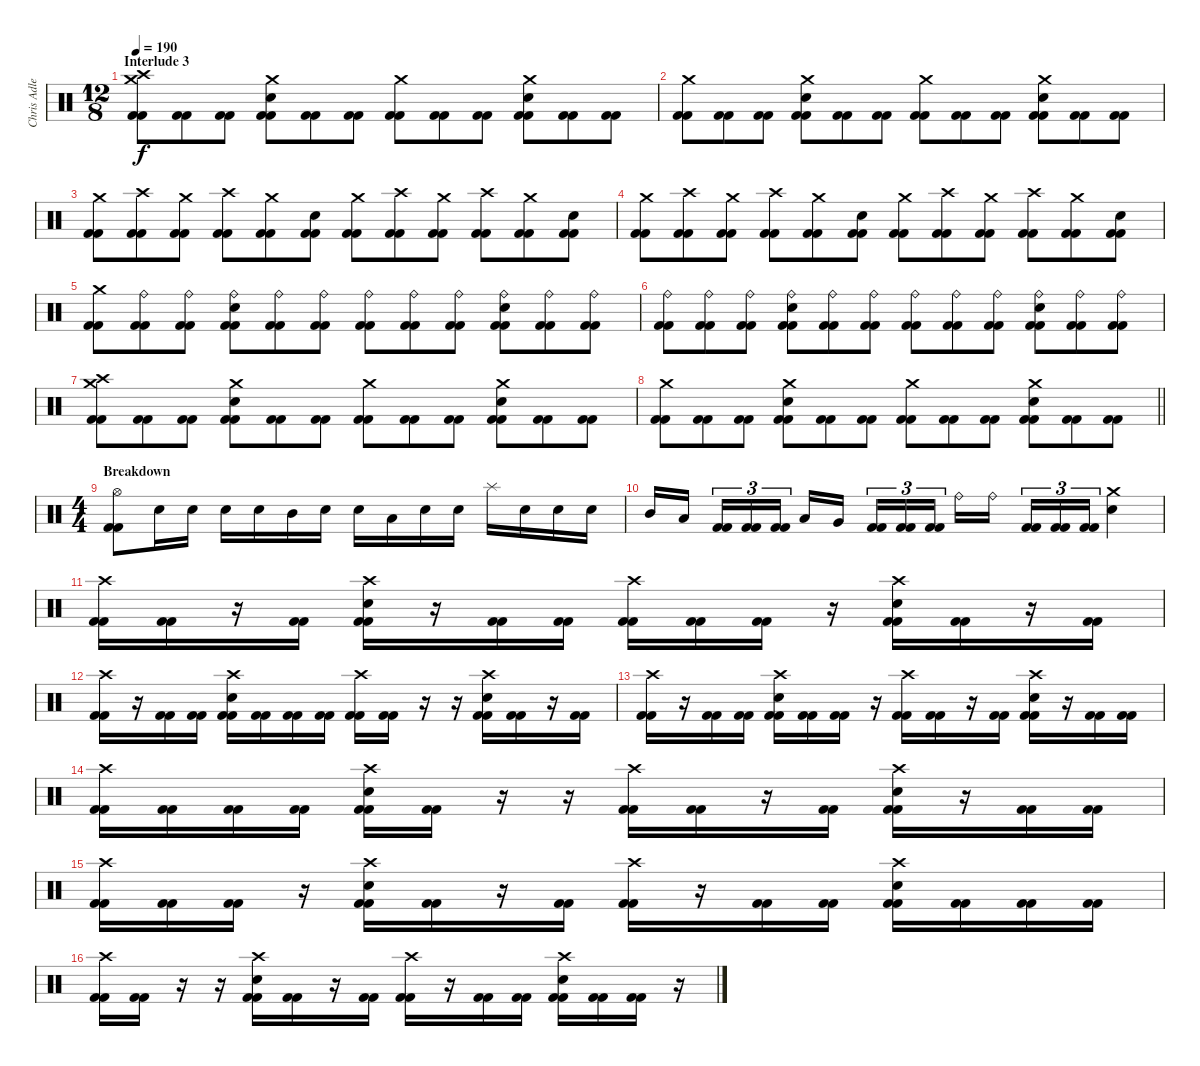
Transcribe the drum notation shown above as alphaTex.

\track ("Chris Adler" "Chris Adle") {instrument percussion}
\staff {score}
\articulation defaults
\ts (12 8)
\section ("" "Interlude 3")
\tempo 190
\clef neutral
\ks c
("Crash medium (hit)" "Crash high (hit)" "Kick (hit) 2" "Kick (hit) 2").8{dy f} ("Kick (hit) 2" "Kick (hit) 2").8 ("Kick (hit) 2" "Kick (hit) 2").8 ("Crash medium (hit)" "Electric Snare (hit)" "Kick (hit) 2" "Kick (hit) 2").8 ("Kick (hit) 2" "Kick (hit) 2").8 ("Kick (hit) 2" "Kick (hit) 2").8 ("Crash medium (hit)" "Kick (hit) 2" "Kick (hit) 2").8 ("Kick (hit) 2" "Kick (hit) 2").8 ("Kick (hit) 2" "Kick (hit) 2").8 ("Crash medium (hit)" "Electric Snare (hit)" "Kick (hit) 2" "Kick (hit) 2").8 ("Kick (hit) 2" "Kick (hit) 2").8 ("Kick (hit) 2" "Kick (hit) 2").8 |
("Crash medium (hit)" "Kick (hit) 2" "Kick (hit) 2").8 ("Kick (hit) 2" "Kick (hit) 2").8 ("Kick (hit) 2" "Kick (hit) 2").8 ("Crash medium (hit)" "Electric Snare (hit)" "Kick (hit) 2" "Kick (hit) 2").8 ("Kick (hit) 2" "Kick (hit) 2").8 ("Kick (hit) 2" "Kick (hit) 2").8 ("Crash medium (hit)" "Kick (hit) 2" "Kick (hit) 2").8 ("Kick (hit) 2" "Kick (hit) 2").8 ("Kick (hit) 2" "Kick (hit) 2").8 ("Crash medium (hit)" "Electric Snare (hit)" "Kick (hit) 2" "Kick (hit) 2").8 ("Kick (hit) 2" "Kick (hit) 2").8 ("Kick (hit) 2" "Kick (hit) 2").8 |
("Crash medium (hit)" "Kick (hit) 2" "Kick (hit) 2").8 ("Crash high (hit)" "Kick (hit) 2" "Kick (hit) 2").8 ("Crash medium (hit)" "Kick (hit) 2" "Kick (hit) 2").8 ("Crash high (hit)" "Kick (hit) 2" "Kick (hit) 2").8 ("Crash medium (hit)" "Kick (hit) 2" "Kick (hit) 2").8 ("Electric Snare (hit)" "Kick (hit) 2" "Kick (hit) 2").8 ("Crash medium (hit)" "Kick (hit) 2" "Kick (hit) 2").8 ("Crash high (hit)" "Kick (hit) 2" "Kick (hit) 2").8 ("Crash medium (hit)" "Kick (hit) 2" "Kick (hit) 2").8 ("Crash high (hit)" "Kick (hit) 2" "Kick (hit) 2").8 ("Crash medium (hit)" "Kick (hit) 2" "Kick (hit) 2").8 ("Electric Snare (hit)" "Kick (hit) 2" "Kick (hit) 2").8 |
("Crash medium (hit)" "Kick (hit) 2" "Kick (hit) 2").8 ("Crash high (hit)" "Kick (hit) 2" "Kick (hit) 2").8 ("Crash medium (hit)" "Kick (hit) 2" "Kick (hit) 2").8 ("Crash high (hit)" "Kick (hit) 2" "Kick (hit) 2").8 ("Crash medium (hit)" "Kick (hit) 2" "Kick (hit) 2").8 ("Electric Snare (hit)" "Kick (hit) 2" "Kick (hit) 2").8 ("Crash medium (hit)" "Kick (hit) 2" "Kick (hit) 2").8 ("Crash high (hit)" "Kick (hit) 2" "Kick (hit) 2").8 ("Crash medium (hit)" "Kick (hit) 2" "Kick (hit) 2").8 ("Crash high (hit)" "Kick (hit) 2" "Kick (hit) 2").8 ("Crash medium (hit)" "Kick (hit) 2" "Kick (hit) 2").8 ("Electric Snare (hit)" "Kick (hit) 2" "Kick (hit) 2").8 |
("Crash medium (hit)" "Kick (hit) 2" "Kick (hit) 2").8 ("Ride (bell)" "Kick (hit) 2" "Kick (hit) 2").8 ("Ride (bell)" "Kick (hit) 2" "Kick (hit) 2").8 ("Ride (bell)" "Electric Snare (hit)" "Kick (hit) 2" "Kick (hit) 2").8 ("Ride (bell)" "Kick (hit) 2" "Kick (hit) 2").8 ("Ride (bell)" "Kick (hit) 2" "Kick (hit) 2").8 ("Ride (bell)" "Kick (hit) 2" "Kick (hit) 2").8 ("Ride (bell)" "Kick (hit) 2" "Kick (hit) 2").8 ("Ride (bell)" "Kick (hit) 2" "Kick (hit) 2").8 ("Ride (bell)" "Electric Snare (hit)" "Kick (hit) 2" "Kick (hit) 2").8 ("Ride (bell)" "Kick (hit) 2" "Kick (hit) 2").8 ("Ride (bell)" "Kick (hit) 2" "Kick (hit) 2").8 |
("Ride (bell)" "Kick (hit) 2" "Kick (hit) 2").8 ("Ride (bell)" "Kick (hit) 2" "Kick (hit) 2").8 ("Ride (bell)" "Kick (hit) 2" "Kick (hit) 2").8 ("Ride (bell)" "Electric Snare (hit)" "Kick (hit) 2" "Kick (hit) 2").8 ("Ride (bell)" "Kick (hit) 2" "Kick (hit) 2").8 ("Ride (bell)" "Kick (hit) 2" "Kick (hit) 2").8 ("Ride (bell)" "Kick (hit) 2" "Kick (hit) 2").8 ("Ride (bell)" "Kick (hit) 2" "Kick (hit) 2").8 ("Ride (bell)" "Kick (hit) 2" "Kick (hit) 2").8 ("Ride (bell)" "Electric Snare (hit)" "Kick (hit) 2" "Kick (hit) 2").8 ("Ride (bell)" "Kick (hit) 2" "Kick (hit) 2").8 ("Ride (bell)" "Kick (hit) 2" "Kick (hit) 2").8 |
("Crash medium (hit)" "Crash high (hit)" "Kick (hit) 2" "Kick (hit) 2").8 ("Kick (hit) 2" "Kick (hit) 2").8 ("Kick (hit) 2" "Kick (hit) 2").8 ("Crash medium (hit)" "Electric Snare (hit)" "Kick (hit) 2" "Kick (hit) 2").8 ("Kick (hit) 2" "Kick (hit) 2").8 ("Kick (hit) 2" "Kick (hit) 2").8 ("Crash medium (hit)" "Kick (hit) 2" "Kick (hit) 2").8 ("Kick (hit) 2" "Kick (hit) 2").8 ("Kick (hit) 2" "Kick (hit) 2").8 ("Crash medium (hit)" "Electric Snare (hit)" "Kick (hit) 2" "Kick (hit) 2").8 ("Kick (hit) 2" "Kick (hit) 2").8 ("Kick (hit) 2" "Kick (hit) 2").8 |
\barLineRight lightlight
("Crash medium (hit)" "Kick (hit) 2" "Kick (hit) 2").8 ("Kick (hit) 2" "Kick (hit) 2").8 ("Kick (hit) 2" "Kick (hit) 2").8 ("Crash medium (hit)" "Electric Snare (hit)" "Kick (hit) 2" "Kick (hit) 2").8 ("Kick (hit) 2" "Kick (hit) 2").8 ("Kick (hit) 2" "Kick (hit) 2").8 ("Crash medium (hit)" "Kick (hit) 2" "Kick (hit) 2").8 ("Kick (hit) 2" "Kick (hit) 2").8 ("Kick (hit) 2" "Kick (hit) 2").8 ("Crash medium (hit)" "Electric Snare (hit)" "Kick (hit) 2" "Kick (hit) 2").8 ("Kick (hit) 2" "Kick (hit) 2").8 ("Kick (hit) 2" "Kick (hit) 2").8 |
\ts (4 4)
\section ("" "Breakdown")
("Hi-Hat (open)" "Kick (hit) 2" "Kick (hit) 2").8 "Electric Snare (hit)".16 "Electric Snare (hit)".16 "Electric Snare (hit)".16 "Electric Snare (hit)".16 "Mid Tom (hit)".16 "Electric Snare (hit)".16 "Electric Snare (hit)".16 "Low Tom (hit)".16 "Electric Snare (hit)".16 "Electric Snare (hit)".16 "Splash (hit)".16 "Electric Snare (hit)".16 "Electric Snare (hit)".16 "Electric Snare (hit)".16 |
"Mid Tom (hit)".16 "Low Tom (hit)".16{beam splitsecondary} ("Kick (hit) 2" "Kick (hit) 2").16{tu (3 2)} ("Kick (hit) 2" "Kick (hit) 2").16{tu (3 2)} ("Kick (hit) 2" "Kick (hit) 2").16{tu (3 2)} "Low Tom (hit)".16 "Very Low Tom (hit)".16{beam splitsecondary} ("Kick (hit) 2" "Kick (hit) 2").16{tu (3 2)} ("Kick (hit) 2" "Kick (hit) 2").16{tu (3 2)} ("Kick (hit) 2" "Kick (hit) 2").16{tu (3 2)} "Ride (bell)".16 "Ride (bell)".16{beam splitsecondary} ("Kick (hit) 2" "Kick (hit) 2").16{tu (3 2)} ("Kick (hit) 2" "Kick (hit) 2").16{tu (3 2)} ("Kick (hit) 2" "Kick (hit) 2").16{tu (3 2)} ("Crash medium (hit)" "Electric Snare (hit)").4 |
("Crash high (hit)" "Kick (hit) 2" "Kick (hit) 2").16 ("Kick (hit) 2" "Kick (hit) 2").16 r.16 ("Kick (hit) 2" "Kick (hit) 2").16 ("Crash high (hit)" "Electric Snare (hit)" "Kick (hit) 2" "Kick (hit) 2").16 r.16 ("Kick (hit) 2" "Kick (hit) 2").16 ("Kick (hit) 2" "Kick (hit) 2").16 ("Crash high (hit)" "Kick (hit) 2" "Kick (hit) 2").16 ("Kick (hit) 2" "Kick (hit) 2").16 ("Kick (hit) 2" "Kick (hit) 2").16 r.16 ("Crash high (hit)" "Electric Snare (hit)" "Kick (hit) 2" "Kick (hit) 2").16 ("Kick (hit) 2" "Kick (hit) 2").16 r.16 ("Kick (hit) 2" "Kick (hit) 2").16 |
("Crash high (hit)" "Kick (hit) 2" "Kick (hit) 2").16 r.16 ("Kick (hit) 2" "Kick (hit) 2").16 ("Kick (hit) 2" "Kick (hit) 2").16 ("Crash high (hit)" "Electric Snare (hit)" "Kick (hit) 2" "Kick (hit) 2").16 ("Kick (hit) 2" "Kick (hit) 2").16 ("Kick (hit) 2" "Kick (hit) 2").16 ("Kick (hit) 2" "Kick (hit) 2").16 ("Crash high (hit)" "Kick (hit) 2" "Kick (hit) 2").16 ("Kick (hit) 2" "Kick (hit) 2").16 r.16 r.16 ("Crash high (hit)" "Electric Snare (hit)" "Kick (hit) 2" "Kick (hit) 2").16 ("Kick (hit) 2" "Kick (hit) 2").16 r.16 ("Kick (hit) 2" "Kick (hit) 2").16 |
("Crash high (hit)" "Kick (hit) 2" "Kick (hit) 2").16 r.16 ("Kick (hit) 2" "Kick (hit) 2").16 ("Kick (hit) 2" "Kick (hit) 2").16 ("Crash high (hit)" "Electric Snare (hit)" "Kick (hit) 2" "Kick (hit) 2").16 ("Kick (hit) 2" "Kick (hit) 2").16 ("Kick (hit) 2" "Kick (hit) 2").16 r.16 ("Crash high (hit)" "Kick (hit) 2" "Kick (hit) 2").16 ("Kick (hit) 2" "Kick (hit) 2").16 r.16 ("Kick (hit) 2" "Kick (hit) 2").16 ("Crash high (hit)" "Electric Snare (hit)" "Kick (hit) 2" "Kick (hit) 2").16 r.16 ("Kick (hit) 2" "Kick (hit) 2").16 ("Kick (hit) 2" "Kick (hit) 2").16 |
("Crash high (hit)" "Kick (hit) 2" "Kick (hit) 2").16 ("Kick (hit) 2" "Kick (hit) 2").16 ("Kick (hit) 2" "Kick (hit) 2").16 ("Kick (hit) 2" "Kick (hit) 2").16 ("Crash high (hit)" "Electric Snare (hit)" "Kick (hit) 2" "Kick (hit) 2").16 ("Kick (hit) 2" "Kick (hit) 2").16 r.16 r.16 ("Crash high (hit)" "Kick (hit) 2" "Kick (hit) 2").16 ("Kick (hit) 2" "Kick (hit) 2").16 r.16 ("Kick (hit) 2" "Kick (hit) 2").16 ("Crash high (hit)" "Electric Snare (hit)" "Kick (hit) 2" "Kick (hit) 2").16 r.16 ("Kick (hit) 2" "Kick (hit) 2").16 ("Kick (hit) 2" "Kick (hit) 2").16 |
("Crash high (hit)" "Kick (hit) 2" "Kick (hit) 2").16 ("Kick (hit) 2" "Kick (hit) 2").16 ("Kick (hit) 2" "Kick (hit) 2").16 r.16 ("Crash high (hit)" "Electric Snare (hit)" "Kick (hit) 2" "Kick (hit) 2").16 ("Kick (hit) 2" "Kick (hit) 2").16 r.16 ("Kick (hit) 2" "Kick (hit) 2").16 ("Crash high (hit)" "Kick (hit) 2" "Kick (hit) 2").16 r.16 ("Kick (hit) 2" "Kick (hit) 2").16 ("Kick (hit) 2" "Kick (hit) 2").16 ("Crash high (hit)" "Electric Snare (hit)" "Kick (hit) 2" "Kick (hit) 2").16 ("Kick (hit) 2" "Kick (hit) 2").16 ("Kick (hit) 2" "Kick (hit) 2").16 ("Kick (hit) 2" "Kick (hit) 2").16 |
("Crash high (hit)" "Kick (hit) 2" "Kick (hit) 2").16 ("Kick (hit) 2" "Kick (hit) 2").16 r.16 r.16 ("Crash high (hit)" "Electric Snare (hit)" "Kick (hit) 2" "Kick (hit) 2").16 ("Kick (hit) 2" "Kick (hit) 2").16 r.16 ("Kick (hit) 2" "Kick (hit) 2").16 ("Crash high (hit)" "Kick (hit) 2" "Kick (hit) 2").16 r.16 ("Kick (hit) 2" "Kick (hit) 2").16 ("Kick (hit) 2" "Kick (hit) 2").16 ("Crash high (hit)" "Electric Snare (hit)" "Kick (hit) 2" "Kick (hit) 2").16 ("Kick (hit) 2" "Kick (hit) 2").16 ("Kick (hit) 2" "Kick (hit) 2").16 r.16
